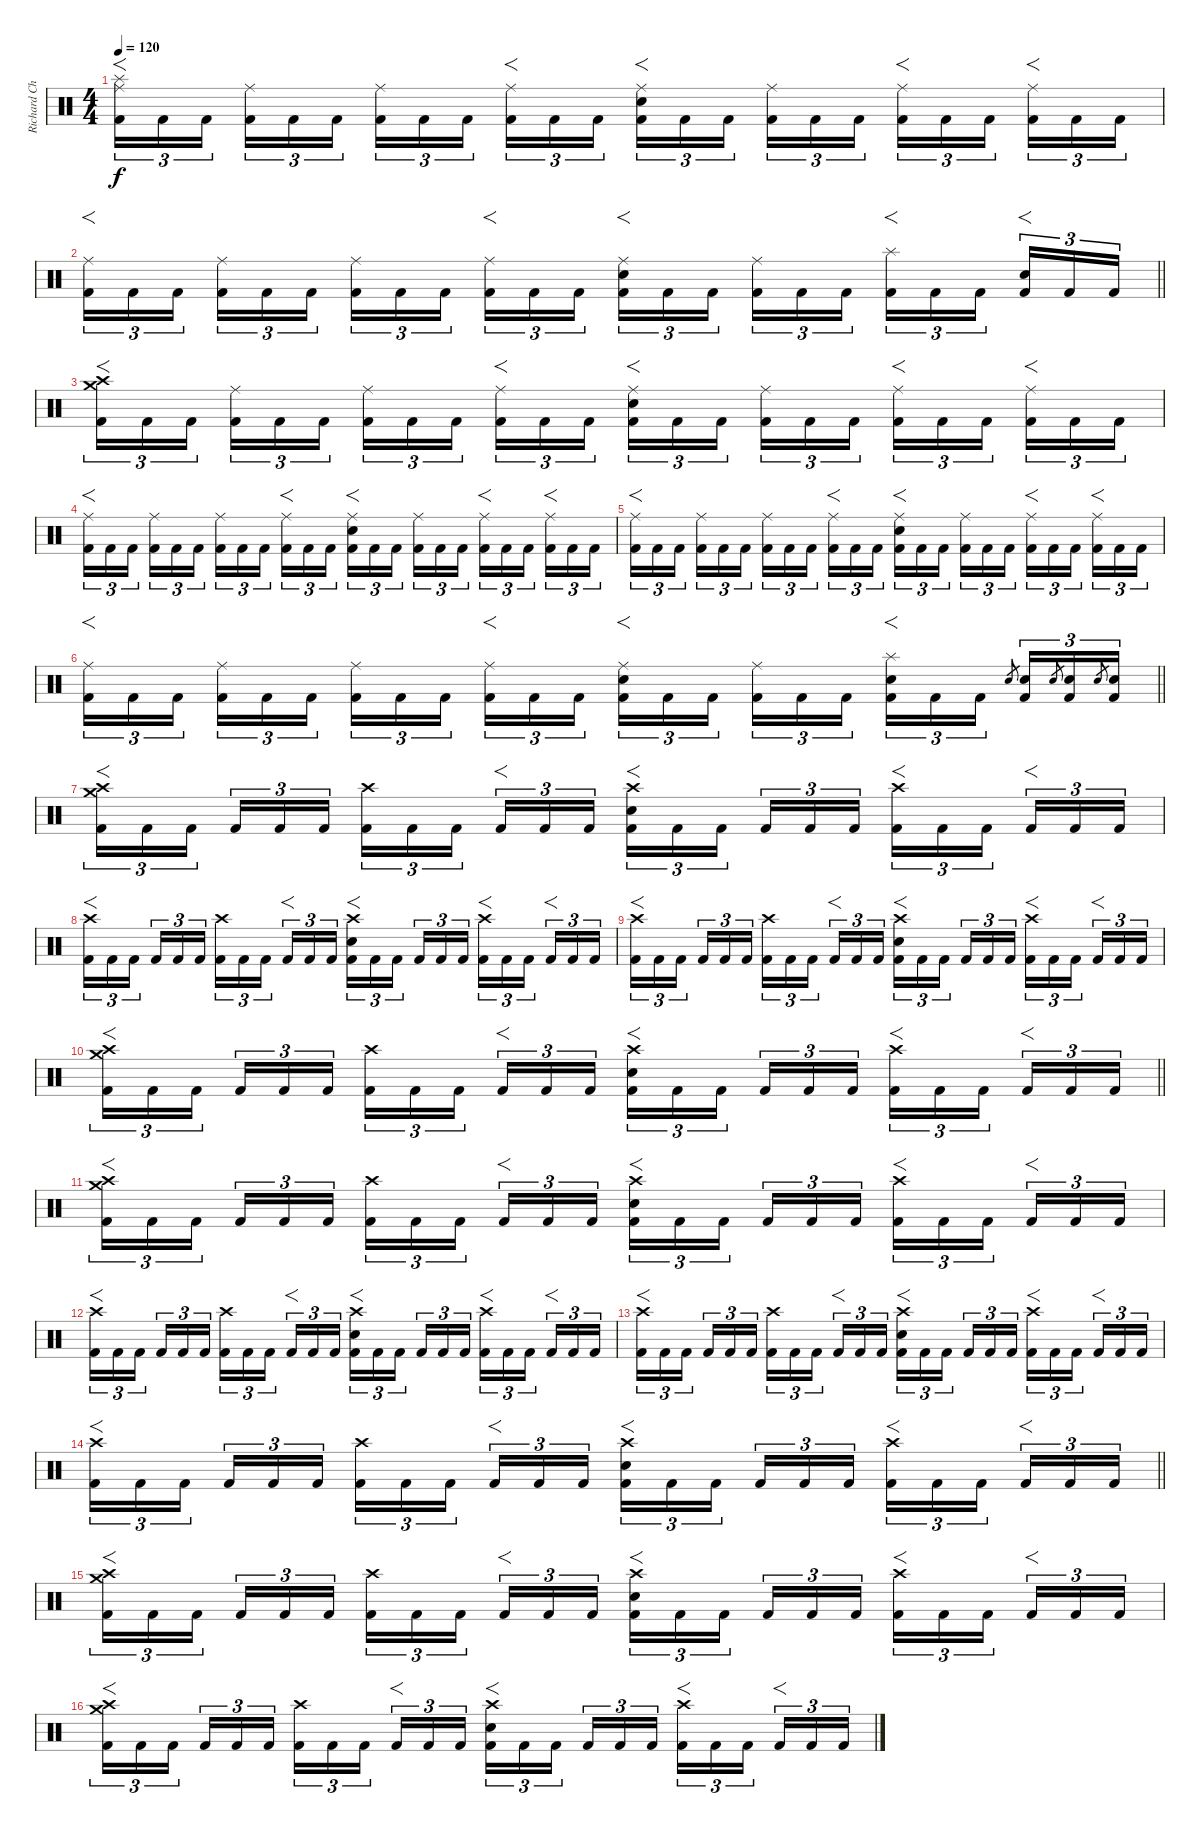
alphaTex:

\track ("Richard Christy" "Richard Ch") {instrument percussion}
\staff {score}
\articulation defaults
\ts (4 4)
\tempo 120
\clef neutral
\ks c
("Ride (middle)" "Splash (hit)" "Kick (hit) 2").16{f tu (3 2) dy f} "Kick (hit) 2".16{tu (3 2)} "Kick (hit) 2".16{tu (3 2) beam splitsecondary} ("Ride (middle)" "Kick (hit) 2").16{tu (3 2)} "Kick (hit) 2".16{tu (3 2)} "Kick (hit) 2".16{tu (3 2)} ("Ride (middle)" "Kick (hit) 2").16{tu (3 2)} "Kick (hit) 2".16{tu (3 2)} "Kick (hit) 2".16{tu (3 2) beam splitsecondary} ("Ride (middle)" "Kick (hit) 2").16{f tu (3 2)} "Kick (hit) 2".16{tu (3 2)} "Kick (hit) 2".16{tu (3 2)} ("Ride (middle)" "Snare (hit) 2" "Kick (hit) 2").16{f tu (3 2)} "Kick (hit) 2".16{tu (3 2)} "Kick (hit) 2".16{tu (3 2) beam splitsecondary} ("Ride (middle)" "Kick (hit) 2").16{tu (3 2)} "Kick (hit) 2".16{tu (3 2)} "Kick (hit) 2".16{tu (3 2)} ("Ride (middle)" "Kick (hit) 2").16{f tu (3 2)} "Kick (hit) 2".16{tu (3 2)} "Kick (hit) 2".16{tu (3 2) beam splitsecondary} ("Ride (middle)" "Kick (hit) 2").16{f tu (3 2)} "Kick (hit) 2".16{tu (3 2)} "Kick (hit) 2".16{tu (3 2)} |
\barLineRight lightlight
("Ride (middle)" "Kick (hit) 2").16{f tu (3 2)} "Kick (hit) 2".16{tu (3 2)} "Kick (hit) 2".16{tu (3 2) beam splitsecondary} ("Ride (middle)" "Kick (hit) 2").16{tu (3 2)} "Kick (hit) 2".16{tu (3 2)} "Kick (hit) 2".16{tu (3 2)} ("Ride (middle)" "Kick (hit) 2").16{tu (3 2)} "Kick (hit) 2".16{tu (3 2)} "Kick (hit) 2".16{tu (3 2) beam splitsecondary} ("Ride (middle)" "Kick (hit) 2").16{f tu (3 2)} "Kick (hit) 2".16{tu (3 2)} "Kick (hit) 2".16{tu (3 2)} ("Ride (middle)" "Snare (hit) 2" "Kick (hit) 2").16{f tu (3 2)} "Kick (hit) 2".16{tu (3 2)} "Kick (hit) 2".16{tu (3 2) beam splitsecondary} ("Ride (middle)" "Kick (hit) 2").16{tu (3 2)} "Kick (hit) 2".16{tu (3 2)} "Kick (hit) 2".16{tu (3 2)} ("Splash (hit)" "Kick (hit) 2").16{f tu (3 2)} "Kick (hit) 2".16{tu (3 2)} "Kick (hit) 2".16{tu (3 2) beam splitsecondary} ("Snare (hit) 2" "Kick (hit) 2").16{f tu (3 2)} "Kick (hit) 2".16{tu (3 2)} "Kick (hit) 2".16{tu (3 2)} |
("Crash high (hit)" "Crash medium (hit)" "Kick (hit) 2").16{f tu (3 2)} "Kick (hit) 2".16{tu (3 2)} "Kick (hit) 2".16{tu (3 2) beam splitsecondary} ("Ride (middle)" "Kick (hit) 2").16{tu (3 2)} "Kick (hit) 2".16{tu (3 2)} "Kick (hit) 2".16{tu (3 2)} ("Ride (middle)" "Kick (hit) 2").16{tu (3 2)} "Kick (hit) 2".16{tu (3 2)} "Kick (hit) 2".16{tu (3 2) beam splitsecondary} ("Ride (middle)" "Kick (hit) 2").16{f tu (3 2)} "Kick (hit) 2".16{tu (3 2)} "Kick (hit) 2".16{tu (3 2)} ("Ride (middle)" "Snare (hit) 2" "Kick (hit) 2").16{f tu (3 2)} "Kick (hit) 2".16{tu (3 2)} "Kick (hit) 2".16{tu (3 2) beam splitsecondary} ("Ride (middle)" "Kick (hit) 2").16{tu (3 2)} "Kick (hit) 2".16{tu (3 2)} "Kick (hit) 2".16{tu (3 2)} ("Ride (middle)" "Kick (hit) 2").16{f tu (3 2)} "Kick (hit) 2".16{tu (3 2)} "Kick (hit) 2".16{tu (3 2) beam splitsecondary} ("Ride (middle)" "Kick (hit) 2").16{f tu (3 2)} "Kick (hit) 2".16{tu (3 2)} "Kick (hit) 2".16{tu (3 2)} |
("Ride (middle)" "Kick (hit) 2").16{f tu (3 2)} "Kick (hit) 2".16{tu (3 2)} "Kick (hit) 2".16{tu (3 2) beam splitsecondary} ("Ride (middle)" "Kick (hit) 2").16{tu (3 2)} "Kick (hit) 2".16{tu (3 2)} "Kick (hit) 2".16{tu (3 2)} ("Ride (middle)" "Kick (hit) 2").16{tu (3 2)} "Kick (hit) 2".16{tu (3 2)} "Kick (hit) 2".16{tu (3 2) beam splitsecondary} ("Ride (middle)" "Kick (hit) 2").16{f tu (3 2)} "Kick (hit) 2".16{tu (3 2)} "Kick (hit) 2".16{tu (3 2)} ("Ride (middle)" "Snare (hit) 2" "Kick (hit) 2").16{f tu (3 2)} "Kick (hit) 2".16{tu (3 2)} "Kick (hit) 2".16{tu (3 2) beam splitsecondary} ("Ride (middle)" "Kick (hit) 2").16{tu (3 2)} "Kick (hit) 2".16{tu (3 2)} "Kick (hit) 2".16{tu (3 2)} ("Ride (middle)" "Kick (hit) 2").16{f tu (3 2)} "Kick (hit) 2".16{tu (3 2)} "Kick (hit) 2".16{tu (3 2) beam splitsecondary} ("Ride (middle)" "Kick (hit) 2").16{f tu (3 2)} "Kick (hit) 2".16{tu (3 2)} "Kick (hit) 2".16{tu (3 2)} |
("Ride (middle)" "Kick (hit) 2").16{f tu (3 2)} "Kick (hit) 2".16{tu (3 2)} "Kick (hit) 2".16{tu (3 2) beam splitsecondary} ("Ride (middle)" "Kick (hit) 2").16{tu (3 2)} "Kick (hit) 2".16{tu (3 2)} "Kick (hit) 2".16{tu (3 2)} ("Ride (middle)" "Kick (hit) 2").16{tu (3 2)} "Kick (hit) 2".16{tu (3 2)} "Kick (hit) 2".16{tu (3 2) beam splitsecondary} ("Ride (middle)" "Kick (hit) 2").16{f tu (3 2)} "Kick (hit) 2".16{tu (3 2)} "Kick (hit) 2".16{tu (3 2)} ("Ride (middle)" "Snare (hit) 2" "Kick (hit) 2").16{f tu (3 2)} "Kick (hit) 2".16{tu (3 2)} "Kick (hit) 2".16{tu (3 2) beam splitsecondary} ("Ride (middle)" "Kick (hit) 2").16{tu (3 2)} "Kick (hit) 2".16{tu (3 2)} "Kick (hit) 2".16{tu (3 2)} ("Ride (middle)" "Kick (hit) 2").16{f tu (3 2)} "Kick (hit) 2".16{tu (3 2)} "Kick (hit) 2".16{tu (3 2) beam splitsecondary} ("Ride (middle)" "Kick (hit) 2").16{f tu (3 2)} "Kick (hit) 2".16{tu (3 2)} "Kick (hit) 2".16{tu (3 2)} |
\barLineRight lightlight
("Ride (middle)" "Kick (hit) 2").16{f tu (3 2)} "Kick (hit) 2".16{tu (3 2)} "Kick (hit) 2".16{tu (3 2) beam splitsecondary} ("Ride (middle)" "Kick (hit) 2").16{tu (3 2)} "Kick (hit) 2".16{tu (3 2)} "Kick (hit) 2".16{tu (3 2)} ("Ride (middle)" "Kick (hit) 2").16{tu (3 2)} "Kick (hit) 2".16{tu (3 2)} "Kick (hit) 2".16{tu (3 2) beam splitsecondary} ("Ride (middle)" "Kick (hit) 2").16{f tu (3 2)} "Kick (hit) 2".16{tu (3 2)} "Kick (hit) 2".16{tu (3 2)} ("Ride (middle)" "Snare (hit) 2" "Kick (hit) 2").16{f tu (3 2)} "Kick (hit) 2".16{tu (3 2)} "Kick (hit) 2".16{tu (3 2) beam splitsecondary} ("Ride (middle)" "Kick (hit) 2").16{tu (3 2)} "Kick (hit) 2".16{tu (3 2)} "Kick (hit) 2".16{tu (3 2)} ("Splash (hit)" "Snare (hit) 2" "Kick (hit) 2").16{f tu (3 2)} "Kick (hit) 2".16{tu (3 2)} "Kick (hit) 2".16{tu (3 2)} "Snare (hit) 2".8{gr beam splitsecondary} ("Snare (hit) 2" "Kick (hit) 2").16{tu (3 2)} "Snare (hit) 2".8{gr} ("Snare (hit) 2" "Kick (hit) 2").16{tu (3 2)} "Snare (hit) 2".8{gr} ("Snare (hit) 2" "Kick (hit) 2").16{tu (3 2)} |
("Crash high (hit)" "Crash medium (hit)" "Kick (hit) 2").16{f tu (3 2)} "Kick (hit) 2".16{tu (3 2)} "Kick (hit) 2".16{tu (3 2) beam splitsecondary} "Kick (hit) 2".16{tu (3 2)} "Kick (hit) 2".16{tu (3 2)} "Kick (hit) 2".16{tu (3 2)} ("Crash high (hit)" "Kick (hit) 2").16{tu (3 2)} "Kick (hit) 2".16{tu (3 2)} "Kick (hit) 2".16{tu (3 2) beam splitsecondary} "Kick (hit) 2".16{f tu (3 2)} "Kick (hit) 2".16{tu (3 2)} "Kick (hit) 2".16{tu (3 2)} ("Crash high (hit)" "Snare (hit) 2" "Kick (hit) 2").16{f tu (3 2)} "Kick (hit) 2".16{tu (3 2)} "Kick (hit) 2".16{tu (3 2) beam splitsecondary} "Kick (hit) 2".16{tu (3 2)} "Kick (hit) 2".16{tu (3 2)} "Kick (hit) 2".16{tu (3 2)} ("Crash high (hit)" "Kick (hit) 2").16{f tu (3 2)} "Kick (hit) 2".16{tu (3 2)} "Kick (hit) 2".16{tu (3 2) beam splitsecondary} "Kick (hit) 2".16{f tu (3 2)} "Kick (hit) 2".16{tu (3 2)} "Kick (hit) 2".16{tu (3 2)} |
("Crash high (hit)" "Kick (hit) 2").16{f tu (3 2) volume 15} "Kick (hit) 2".16{tu (3 2)} "Kick (hit) 2".16{tu (3 2) beam splitsecondary} "Kick (hit) 2".16{tu (3 2)} "Kick (hit) 2".16{tu (3 2)} "Kick (hit) 2".16{tu (3 2)} ("Crash high (hit)" "Kick (hit) 2").16{tu (3 2)} "Kick (hit) 2".16{tu (3 2)} "Kick (hit) 2".16{tu (3 2) beam splitsecondary} "Kick (hit) 2".16{f tu (3 2)} "Kick (hit) 2".16{tu (3 2)} "Kick (hit) 2".16{tu (3 2)} ("Crash high (hit)" "Snare (hit) 2" "Kick (hit) 2").16{f tu (3 2)} "Kick (hit) 2".16{tu (3 2)} "Kick (hit) 2".16{tu (3 2) beam splitsecondary} "Kick (hit) 2".16{tu (3 2)} "Kick (hit) 2".16{tu (3 2)} "Kick (hit) 2".16{tu (3 2)} ("Crash high (hit)" "Kick (hit) 2").16{f tu (3 2)} "Kick (hit) 2".16{tu (3 2)} "Kick (hit) 2".16{tu (3 2) beam splitsecondary} "Kick (hit) 2".16{f tu (3 2)} "Kick (hit) 2".16{tu (3 2)} "Kick (hit) 2".16{tu (3 2)} |
("Crash high (hit)" "Kick (hit) 2").16{f tu (3 2) volume 14} "Kick (hit) 2".16{tu (3 2)} "Kick (hit) 2".16{tu (3 2) beam splitsecondary} "Kick (hit) 2".16{tu (3 2)} "Kick (hit) 2".16{tu (3 2)} "Kick (hit) 2".16{tu (3 2)} ("Crash high (hit)" "Kick (hit) 2").16{tu (3 2)} "Kick (hit) 2".16{tu (3 2)} "Kick (hit) 2".16{tu (3 2) beam splitsecondary} "Kick (hit) 2".16{f tu (3 2)} "Kick (hit) 2".16{tu (3 2)} "Kick (hit) 2".16{tu (3 2)} ("Crash high (hit)" "Snare (hit) 2" "Kick (hit) 2").16{f tu (3 2)} "Kick (hit) 2".16{tu (3 2)} "Kick (hit) 2".16{tu (3 2) beam splitsecondary} "Kick (hit) 2".16{tu (3 2)} "Kick (hit) 2".16{tu (3 2)} "Kick (hit) 2".16{tu (3 2)} ("Crash high (hit)" "Kick (hit) 2").16{f tu (3 2)} "Kick (hit) 2".16{tu (3 2)} "Kick (hit) 2".16{tu (3 2) beam splitsecondary} "Kick (hit) 2".16{f tu (3 2)} "Kick (hit) 2".16{tu (3 2)} "Kick (hit) 2".16{tu (3 2)} |
\barLineRight lightlight
("Crash high (hit)" "Crash medium (hit)" "Kick (hit) 2").16{f tu (3 2) volume 13} "Kick (hit) 2".16{tu (3 2)} "Kick (hit) 2".16{tu (3 2) beam splitsecondary} "Kick (hit) 2".16{tu (3 2)} "Kick (hit) 2".16{tu (3 2)} "Kick (hit) 2".16{tu (3 2)} ("Crash high (hit)" "Kick (hit) 2").16{tu (3 2)} "Kick (hit) 2".16{tu (3 2)} "Kick (hit) 2".16{tu (3 2) beam splitsecondary} "Kick (hit) 2".16{f tu (3 2)} "Kick (hit) 2".16{tu (3 2)} "Kick (hit) 2".16{tu (3 2)} ("Crash high (hit)" "Snare (hit) 2" "Kick (hit) 2").16{f tu (3 2)} "Kick (hit) 2".16{tu (3 2)} "Kick (hit) 2".16{tu (3 2) beam splitsecondary} "Kick (hit) 2".16{tu (3 2)} "Kick (hit) 2".16{tu (3 2)} "Kick (hit) 2".16{tu (3 2)} ("Crash high (hit)" "Kick (hit) 2").16{f tu (3 2)} "Kick (hit) 2".16{tu (3 2)} "Kick (hit) 2".16{tu (3 2) beam splitsecondary} "Kick (hit) 2".16{f tu (3 2)} "Kick (hit) 2".16{tu (3 2)} "Kick (hit) 2".16{tu (3 2)} |
("Crash high (hit)" "Crash medium (hit)" "Kick (hit) 2").16{f tu (3 2) volume 12} "Kick (hit) 2".16{tu (3 2)} "Kick (hit) 2".16{tu (3 2) beam splitsecondary} "Kick (hit) 2".16{tu (3 2)} "Kick (hit) 2".16{tu (3 2)} "Kick (hit) 2".16{tu (3 2)} ("Crash high (hit)" "Kick (hit) 2").16{tu (3 2)} "Kick (hit) 2".16{tu (3 2)} "Kick (hit) 2".16{tu (3 2) beam splitsecondary} "Kick (hit) 2".16{f tu (3 2)} "Kick (hit) 2".16{tu (3 2)} "Kick (hit) 2".16{tu (3 2)} ("Crash high (hit)" "Snare (hit) 2" "Kick (hit) 2").16{f tu (3 2)} "Kick (hit) 2".16{tu (3 2)} "Kick (hit) 2".16{tu (3 2) beam splitsecondary} "Kick (hit) 2".16{tu (3 2)} "Kick (hit) 2".16{tu (3 2)} "Kick (hit) 2".16{tu (3 2)} ("Crash high (hit)" "Kick (hit) 2").16{f tu (3 2)} "Kick (hit) 2".16{tu (3 2)} "Kick (hit) 2".16{tu (3 2) beam splitsecondary} "Kick (hit) 2".16{f tu (3 2)} "Kick (hit) 2".16{tu (3 2)} "Kick (hit) 2".16{tu (3 2)} |
("Crash high (hit)" "Kick (hit) 2").16{f tu (3 2) volume 11} "Kick (hit) 2".16{tu (3 2)} "Kick (hit) 2".16{tu (3 2) beam splitsecondary} "Kick (hit) 2".16{tu (3 2)} "Kick (hit) 2".16{tu (3 2)} "Kick (hit) 2".16{tu (3 2)} ("Crash high (hit)" "Kick (hit) 2").16{tu (3 2)} "Kick (hit) 2".16{tu (3 2)} "Kick (hit) 2".16{tu (3 2) beam splitsecondary} "Kick (hit) 2".16{f tu (3 2)} "Kick (hit) 2".16{tu (3 2)} "Kick (hit) 2".16{tu (3 2)} ("Crash high (hit)" "Snare (hit) 2" "Kick (hit) 2").16{f tu (3 2)} "Kick (hit) 2".16{tu (3 2)} "Kick (hit) 2".16{tu (3 2) beam splitsecondary} "Kick (hit) 2".16{tu (3 2)} "Kick (hit) 2".16{tu (3 2)} "Kick (hit) 2".16{tu (3 2)} ("Crash high (hit)" "Kick (hit) 2").16{f tu (3 2)} "Kick (hit) 2".16{tu (3 2)} "Kick (hit) 2".16{tu (3 2) beam splitsecondary} "Kick (hit) 2".16{f tu (3 2)} "Kick (hit) 2".16{tu (3 2)} "Kick (hit) 2".16{tu (3 2)} |
("Crash high (hit)" "Kick (hit) 2").16{f tu (3 2) volume 10} "Kick (hit) 2".16{tu (3 2)} "Kick (hit) 2".16{tu (3 2) beam splitsecondary} "Kick (hit) 2".16{tu (3 2)} "Kick (hit) 2".16{tu (3 2)} "Kick (hit) 2".16{tu (3 2)} ("Crash high (hit)" "Kick (hit) 2").16{tu (3 2)} "Kick (hit) 2".16{tu (3 2)} "Kick (hit) 2".16{tu (3 2) beam splitsecondary} "Kick (hit) 2".16{f tu (3 2)} "Kick (hit) 2".16{tu (3 2)} "Kick (hit) 2".16{tu (3 2)} ("Crash high (hit)" "Snare (hit) 2" "Kick (hit) 2").16{f tu (3 2)} "Kick (hit) 2".16{tu (3 2)} "Kick (hit) 2".16{tu (3 2) beam splitsecondary} "Kick (hit) 2".16{tu (3 2)} "Kick (hit) 2".16{tu (3 2)} "Kick (hit) 2".16{tu (3 2)} ("Crash high (hit)" "Kick (hit) 2").16{f tu (3 2)} "Kick (hit) 2".16{tu (3 2)} "Kick (hit) 2".16{tu (3 2) beam splitsecondary} "Kick (hit) 2".16{f tu (3 2)} "Kick (hit) 2".16{tu (3 2)} "Kick (hit) 2".16{tu (3 2)} |
\barLineRight lightlight
("Crash high (hit)" "Kick (hit) 2").16{f tu (3 2) volume 9} "Kick (hit) 2".16{tu (3 2)} "Kick (hit) 2".16{tu (3 2) beam splitsecondary} "Kick (hit) 2".16{tu (3 2)} "Kick (hit) 2".16{tu (3 2)} "Kick (hit) 2".16{tu (3 2)} ("Crash high (hit)" "Kick (hit) 2").16{tu (3 2)} "Kick (hit) 2".16{tu (3 2)} "Kick (hit) 2".16{tu (3 2) beam splitsecondary} "Kick (hit) 2".16{f tu (3 2)} "Kick (hit) 2".16{tu (3 2)} "Kick (hit) 2".16{tu (3 2)} ("Crash high (hit)" "Snare (hit) 2" "Kick (hit) 2").16{f tu (3 2)} "Kick (hit) 2".16{tu (3 2)} "Kick (hit) 2".16{tu (3 2) beam splitsecondary} "Kick (hit) 2".16{tu (3 2)} "Kick (hit) 2".16{tu (3 2)} "Kick (hit) 2".16{tu (3 2)} ("Crash high (hit)" "Kick (hit) 2").16{f tu (3 2)} "Kick (hit) 2".16{tu (3 2)} "Kick (hit) 2".16{tu (3 2) beam splitsecondary} "Kick (hit) 2".16{f tu (3 2)} "Kick (hit) 2".16{tu (3 2)} "Kick (hit) 2".16{tu (3 2)} |
("Crash high (hit)" "Crash medium (hit)" "Kick (hit) 2").16{f tu (3 2) volume 8} "Kick (hit) 2".16{tu (3 2)} "Kick (hit) 2".16{tu (3 2) beam splitsecondary} "Kick (hit) 2".16{tu (3 2)} "Kick (hit) 2".16{tu (3 2)} "Kick (hit) 2".16{tu (3 2)} ("Crash high (hit)" "Kick (hit) 2").16{tu (3 2)} "Kick (hit) 2".16{tu (3 2)} "Kick (hit) 2".16{tu (3 2) beam splitsecondary} "Kick (hit) 2".16{f tu (3 2)} "Kick (hit) 2".16{tu (3 2)} "Kick (hit) 2".16{tu (3 2)} ("Crash high (hit)" "Snare (hit) 2" "Kick (hit) 2").16{f tu (3 2)} "Kick (hit) 2".16{tu (3 2)} "Kick (hit) 2".16{tu (3 2) beam splitsecondary} "Kick (hit) 2".16{tu (3 2)} "Kick (hit) 2".16{tu (3 2)} "Kick (hit) 2".16{tu (3 2)} ("Crash high (hit)" "Kick (hit) 2").16{f tu (3 2)} "Kick (hit) 2".16{tu (3 2)} "Kick (hit) 2".16{tu (3 2) beam splitsecondary} "Kick (hit) 2".16{f tu (3 2)} "Kick (hit) 2".16{tu (3 2)} "Kick (hit) 2".16{tu (3 2)} |
("Crash high (hit)" "Crash medium (hit)" "Kick (hit) 2").16{f tu (3 2) volume 7} "Kick (hit) 2".16{tu (3 2)} "Kick (hit) 2".16{tu (3 2) beam splitsecondary} "Kick (hit) 2".16{tu (3 2)} "Kick (hit) 2".16{tu (3 2)} "Kick (hit) 2".16{tu (3 2)} ("Crash high (hit)" "Kick (hit) 2").16{tu (3 2)} "Kick (hit) 2".16{tu (3 2)} "Kick (hit) 2".16{tu (3 2) beam splitsecondary} "Kick (hit) 2".16{f tu (3 2)} "Kick (hit) 2".16{tu (3 2)} "Kick (hit) 2".16{tu (3 2)} ("Crash high (hit)" "Snare (hit) 2" "Kick (hit) 2").16{f tu (3 2)} "Kick (hit) 2".16{tu (3 2)} "Kick (hit) 2".16{tu (3 2) beam splitsecondary} "Kick (hit) 2".16{tu (3 2)} "Kick (hit) 2".16{tu (3 2)} "Kick (hit) 2".16{tu (3 2)} ("Crash high (hit)" "Kick (hit) 2").16{f tu (3 2)} "Kick (hit) 2".16{tu (3 2)} "Kick (hit) 2".16{tu (3 2) beam splitsecondary} "Kick (hit) 2".16{f tu (3 2)} "Kick (hit) 2".16{tu (3 2)} "Kick (hit) 2".16{tu (3 2)}
